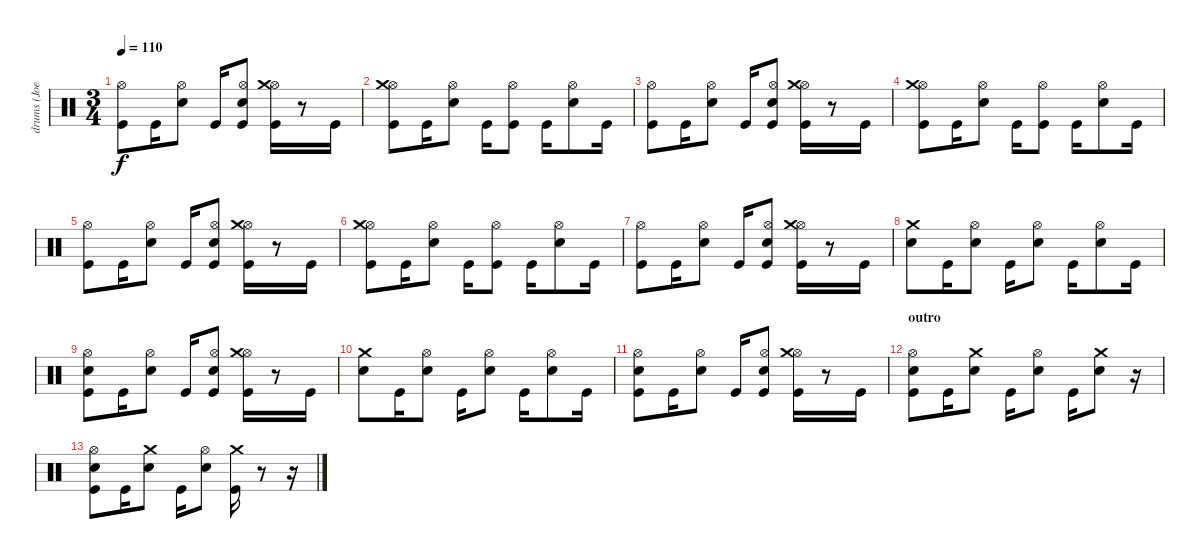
\track ("drums (Joey Castillo)" "drums (Joe") {instrument percussion}
\staff {score}
\articulation defaults
\ts (3 4)
\tempo 110
\clef neutral
\ks c
("Kick (hit)" "Hi-Hat (open)").8{dy f} "Kick (hit)".16 ("Electric Snare (hit)" "Hi-Hat (open)").8 "Kick (hit)".16 ("Kick (hit)" "Electric Snare (hit)" "Hi-Hat (open)").8 ("Kick (hit)" "Hi-Hat (open)" "Crash medium (hit)").16 r.8 "Kick (hit)".16 |
("Kick (hit)" "Hi-Hat (open)" "Crash medium (hit)").8 "Kick (hit)".16 ("Electric Snare (hit)" "Hi-Hat (open)").8 "Kick (hit)".16 ("Kick (hit)" "Hi-Hat (open)").8 "Kick (hit)".16 ("Electric Snare (hit)" "Hi-Hat (open)").8 "Kick (hit)".16 |
("Kick (hit)" "Hi-Hat (open)").8 "Kick (hit)".16 ("Electric Snare (hit)" "Hi-Hat (open)").8 "Kick (hit)".16 ("Kick (hit)" "Electric Snare (hit)" "Hi-Hat (open)").8 ("Kick (hit)" "Hi-Hat (open)" "Crash medium (hit)").16 r.8 "Kick (hit)".16 |
("Kick (hit)" "Hi-Hat (open)" "Crash medium (hit)").8 "Kick (hit)".16 ("Electric Snare (hit)" "Hi-Hat (open)").8 "Kick (hit)".16 ("Kick (hit)" "Hi-Hat (open)").8 "Kick (hit)".16 ("Electric Snare (hit)" "Hi-Hat (open)").8 "Kick (hit)".16 |
("Kick (hit)" "Hi-Hat (open)").8 "Kick (hit)".16 ("Electric Snare (hit)" "Hi-Hat (open)").8 "Kick (hit)".16 ("Kick (hit)" "Electric Snare (hit)" "Hi-Hat (open)").8 ("Kick (hit)" "Hi-Hat (open)" "Crash medium (hit)").16 r.8 "Kick (hit)".16 |
("Kick (hit)" "Hi-Hat (open)" "Crash medium (hit)").8 "Kick (hit)".16 ("Electric Snare (hit)" "Hi-Hat (open)").8 "Kick (hit)".16 ("Kick (hit)" "Hi-Hat (open)").8 "Kick (hit)".16 ("Electric Snare (hit)" "Hi-Hat (open)").8 "Kick (hit)".16 |
("Kick (hit)" "Hi-Hat (open)").8 "Kick (hit)".16 ("Electric Snare (hit)" "Hi-Hat (open)").8 "Kick (hit)".16 ("Kick (hit)" "Electric Snare (hit)" "Hi-Hat (open)").8 ("Kick (hit)" "Hi-Hat (open)" "Crash medium (hit)").16 r.8 "Kick (hit)".16 |
("Electric Snare (hit)" "Crash medium (hit)").8 "Kick (hit)".16 ("Electric Snare (hit)" "Hi-Hat (open)").8 "Kick (hit)".16 ("Electric Snare (hit)" "Hi-Hat (open)").8 "Kick (hit)".16 ("Electric Snare (hit)" "Hi-Hat (open)").8 "Kick (hit)".16 |
("Kick (hit)" "Electric Snare (hit)" "Hi-Hat (open)").8 "Kick (hit)".16 ("Electric Snare (hit)" "Hi-Hat (open)").8 "Kick (hit)".16 ("Kick (hit)" "Electric Snare (hit)" "Hi-Hat (open)").8 ("Kick (hit)" "Hi-Hat (open)" "Crash medium (hit)").16 r.8 "Kick (hit)".16 |
("Electric Snare (hit)" "Crash medium (hit)").8 "Kick (hit)".16 ("Electric Snare (hit)" "Hi-Hat (open)").8 "Kick (hit)".16 ("Electric Snare (hit)" "Hi-Hat (open)").8 "Kick (hit)".16 ("Electric Snare (hit)" "Hi-Hat (open)").8 "Kick (hit)".16 |
("Kick (hit)" "Electric Snare (hit)" "Hi-Hat (open)").8 "Kick (hit)".16 ("Electric Snare (hit)" "Hi-Hat (open)").8 "Kick (hit)".16 ("Kick (hit)" "Electric Snare (hit)" "Hi-Hat (open)").8 ("Kick (hit)" "Hi-Hat (open)" "Crash medium (hit)").16 r.8 "Kick (hit)".16 |
\section ("" "outro")
("Kick (hit)" "Electric Snare (hit)" "Hi-Hat (open)").8 "Kick (hit)".16 ("Electric Snare (hit)" "Crash medium (hit)").8 "Kick (hit)".16 ("Electric Snare (hit)" "Hi-Hat (open)").8 "Kick (hit)".16 ("Electric Snare (hit)" "Crash medium (hit)").8 r.16 |
("Kick (hit)" "Electric Snare (hit)" "Hi-Hat (open)").8 "Kick (hit)".16 ("Electric Snare (hit)" "Crash medium (hit)").8 "Kick (hit)".16 ("Electric Snare (hit)" "Hi-Hat (open)").8 ("Kick (hit)" "Crash medium (hit)").16 r.8 r.16
